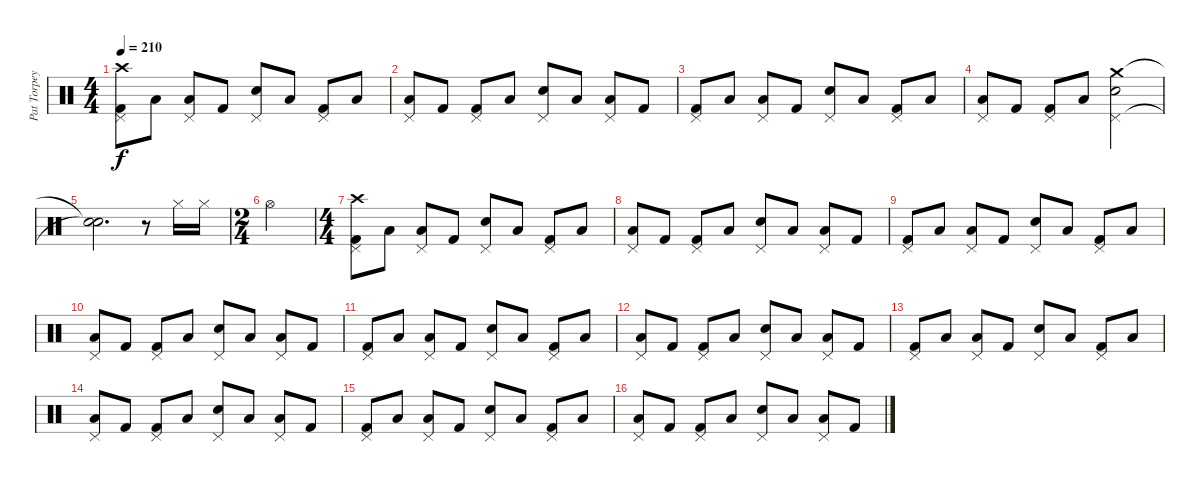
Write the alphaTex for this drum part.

\track ("Pat Torpey" "Pat Torpey") {instrument percussion}
\staff {score}
\articulation defaults
\ts (4 4)
\tempo 210
\clef neutral
\ks c
("Crash high (hit)" "Pedal Hi-Hat (hit)" "Kick (hit) 2").8{dy f} "Low Floor Tom (hit)".8 ("Pedal Hi-Hat (hit)" "Low Floor Tom (hit)").8 "Kick (hit) 2".8 ("Pedal Hi-Hat (hit)" "Snare (hit) 2").8 "Low Floor Tom (hit)".8 ("Pedal Hi-Hat (hit)" "Kick (hit) 2").8 "Low Floor Tom (hit)".8 |
("Pedal Hi-Hat (hit)" "Low Floor Tom (hit)").8 "Kick (hit) 2".8 ("Pedal Hi-Hat (hit)" "Kick (hit) 2").8 "Low Floor Tom (hit)".8 ("Pedal Hi-Hat (hit)" "Snare (hit) 2").8 "Low Floor Tom (hit)".8 ("Pedal Hi-Hat (hit)" "Low Floor Tom (hit)").8 "Kick (hit) 2".8 |
("Pedal Hi-Hat (hit)" "Kick (hit) 2").8 "Low Floor Tom (hit)".8 ("Pedal Hi-Hat (hit)" "Low Floor Tom (hit)").8 "Kick (hit) 2".8 ("Pedal Hi-Hat (hit)" "Snare (hit) 2").8 "Low Floor Tom (hit)".8 ("Pedal Hi-Hat (hit)" "Kick (hit) 2").8 "Low Floor Tom (hit)".8 |
("Pedal Hi-Hat (hit)" "Low Floor Tom (hit)").8 "Kick (hit) 2".8 ("Pedal Hi-Hat (hit)" "Kick (hit) 2").8 "Low Floor Tom (hit)".8 ("Crash medium (hit)" "Pedal Hi-Hat (hit)" "Snare (hit) 2").2 |
("Snare (hit)"{t} "Snare (hit)"{t}).2{d} r.8 "Hi-Hat (closed)".16 "Hi-Hat (closed)".16 |
\ts (2 4)
"Hi-Hat (open)".2 |
\ts (4 4)
("Crash high (hit)" "Pedal Hi-Hat (hit)" "Kick (hit) 2").8 "Low Floor Tom (hit)".8 ("Pedal Hi-Hat (hit)" "Low Floor Tom (hit)").8 "Kick (hit) 2".8 ("Pedal Hi-Hat (hit)" "Snare (hit) 2").8 "Low Floor Tom (hit)".8 ("Pedal Hi-Hat (hit)" "Kick (hit) 2").8 "Low Floor Tom (hit)".8 |
("Pedal Hi-Hat (hit)" "Low Floor Tom (hit)").8 "Kick (hit) 2".8 ("Pedal Hi-Hat (hit)" "Kick (hit) 2").8 "Low Floor Tom (hit)".8 ("Pedal Hi-Hat (hit)" "Snare (hit) 2").8 "Low Floor Tom (hit)".8 ("Pedal Hi-Hat (hit)" "Low Floor Tom (hit)").8 "Kick (hit) 2".8 |
("Pedal Hi-Hat (hit)" "Kick (hit) 2").8 "Low Floor Tom (hit)".8 ("Pedal Hi-Hat (hit)" "Low Floor Tom (hit)").8 "Kick (hit) 2".8 ("Pedal Hi-Hat (hit)" "Snare (hit) 2").8 "Low Floor Tom (hit)".8 ("Pedal Hi-Hat (hit)" "Kick (hit) 2").8 "Low Floor Tom (hit)".8 |
("Pedal Hi-Hat (hit)" "Low Floor Tom (hit)").8 "Kick (hit) 2".8 ("Pedal Hi-Hat (hit)" "Kick (hit) 2").8 "Low Floor Tom (hit)".8 ("Pedal Hi-Hat (hit)" "Snare (hit) 2").8 "Low Floor Tom (hit)".8 ("Pedal Hi-Hat (hit)" "Low Floor Tom (hit)").8 "Kick (hit) 2".8 |
("Pedal Hi-Hat (hit)" "Kick (hit) 2").8 "Low Floor Tom (hit)".8 ("Pedal Hi-Hat (hit)" "Low Floor Tom (hit)").8 "Kick (hit) 2".8 ("Pedal Hi-Hat (hit)" "Snare (hit) 2").8 "Low Floor Tom (hit)".8 ("Pedal Hi-Hat (hit)" "Kick (hit) 2").8 "Low Floor Tom (hit)".8 |
("Pedal Hi-Hat (hit)" "Low Floor Tom (hit)").8 "Kick (hit) 2".8 ("Pedal Hi-Hat (hit)" "Kick (hit) 2").8 "Low Floor Tom (hit)".8 ("Pedal Hi-Hat (hit)" "Snare (hit) 2").8 "Low Floor Tom (hit)".8 ("Pedal Hi-Hat (hit)" "Low Floor Tom (hit)").8 "Kick (hit) 2".8 |
("Pedal Hi-Hat (hit)" "Kick (hit) 2").8 "Low Floor Tom (hit)".8 ("Pedal Hi-Hat (hit)" "Low Floor Tom (hit)").8 "Kick (hit) 2".8 ("Pedal Hi-Hat (hit)" "Snare (hit) 2").8 "Low Floor Tom (hit)".8 ("Pedal Hi-Hat (hit)" "Kick (hit) 2").8 "Low Floor Tom (hit)".8 |
("Pedal Hi-Hat (hit)" "Low Floor Tom (hit)").8 "Kick (hit) 2".8 ("Pedal Hi-Hat (hit)" "Kick (hit) 2").8 "Low Floor Tom (hit)".8 ("Pedal Hi-Hat (hit)" "Snare (hit) 2").8 "Low Floor Tom (hit)".8 ("Pedal Hi-Hat (hit)" "Low Floor Tom (hit)").8 "Kick (hit) 2".8 |
("Pedal Hi-Hat (hit)" "Kick (hit) 2").8 "Low Floor Tom (hit)".8 ("Pedal Hi-Hat (hit)" "Low Floor Tom (hit)").8 "Kick (hit) 2".8 ("Pedal Hi-Hat (hit)" "Snare (hit) 2").8 "Low Floor Tom (hit)".8 ("Pedal Hi-Hat (hit)" "Kick (hit) 2").8 "Low Floor Tom (hit)".8 |
("Pedal Hi-Hat (hit)" "Low Floor Tom (hit)").8 "Kick (hit) 2".8 ("Pedal Hi-Hat (hit)" "Kick (hit) 2").8 "Low Floor Tom (hit)".8 ("Pedal Hi-Hat (hit)" "Snare (hit) 2").8 "Low Floor Tom (hit)".8 ("Pedal Hi-Hat (hit)" "Low Floor Tom (hit)").8 "Kick (hit) 2".8
